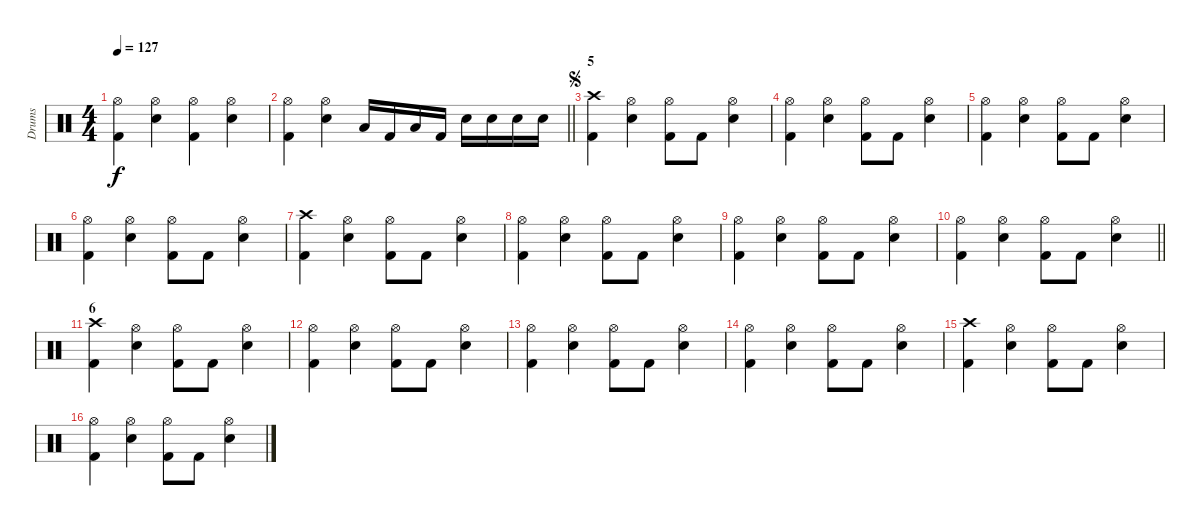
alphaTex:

\track ("Drums" "Drums") {instrument percussion}
\staff {score}
\articulation defaults
\ts (4 4)
\tempo 127
\clef neutral
\ks c
("Hi-Hat (open)" "Kick (hit) 2").4{dy f} ("Hi-Hat (open)" "Snare (hit) 2").4 ("Hi-Hat (open)" "Kick (hit) 2").4 ("Hi-Hat (open)" "Snare (hit) 2").4 |
\barLineRight lightlight
("Hi-Hat (open)" "Kick (hit) 2").4 ("Hi-Hat (open)" "Snare (hit) 2").4 "Low Tom (hit)".16 "Kick (hit) 2".16 "Low Tom (hit)".16 "Kick (hit) 2".16 "Snare (hit) 2".16 "Snare (hit) 2".16 "Snare (hit) 2".16 "Snare (hit) 2".16 |
\section ("" "5")
\jump segno
("Crash high (hit)" "Kick (hit) 2").4 ("Hi-Hat (open)" "Snare (hit) 2").4 ("Hi-Hat (open)" "Kick (hit) 2").8 "Kick (hit) 2".8 ("Hi-Hat (open)" "Snare (hit) 2").4 |
("Hi-Hat (open)" "Kick (hit) 2").4 ("Hi-Hat (open)" "Snare (hit) 2").4 ("Hi-Hat (open)" "Kick (hit) 2").8 "Kick (hit) 2".8 ("Hi-Hat (open)" "Snare (hit) 2").4 |
("Hi-Hat (open)" "Kick (hit) 2").4 ("Hi-Hat (open)" "Snare (hit) 2").4 ("Hi-Hat (open)" "Kick (hit) 2").8 "Kick (hit) 2".8 ("Hi-Hat (open)" "Snare (hit) 2").4 |
("Hi-Hat (open)" "Kick (hit) 2").4 ("Hi-Hat (open)" "Snare (hit) 2").4 ("Hi-Hat (open)" "Kick (hit) 2").8 "Kick (hit) 2".8 ("Hi-Hat (open)" "Snare (hit) 2").4 |
("Crash high (hit)" "Kick (hit) 2").4 ("Hi-Hat (open)" "Snare (hit) 2").4 ("Hi-Hat (open)" "Kick (hit) 2").8 "Kick (hit) 2".8 ("Hi-Hat (open)" "Snare (hit) 2").4 |
("Hi-Hat (open)" "Kick (hit) 2").4 ("Hi-Hat (open)" "Snare (hit) 2").4 ("Hi-Hat (open)" "Kick (hit) 2").8 "Kick (hit) 2".8 ("Hi-Hat (open)" "Snare (hit) 2").4 |
("Hi-Hat (open)" "Kick (hit) 2").4 ("Hi-Hat (open)" "Snare (hit) 2").4 ("Hi-Hat (open)" "Kick (hit) 2").8 "Kick (hit) 2".8 ("Hi-Hat (open)" "Snare (hit) 2").4 |
\barLineRight lightlight
("Hi-Hat (open)" "Kick (hit) 2").4 ("Hi-Hat (open)" "Snare (hit) 2").4 ("Hi-Hat (open)" "Kick (hit) 2").8 "Kick (hit) 2".8 ("Hi-Hat (open)" "Snare (hit) 2").4 |
\section ("" "6")
("Crash high (hit)" "Kick (hit) 2").4 ("Hi-Hat (open)" "Snare (hit) 2").4 ("Hi-Hat (open)" "Kick (hit) 2").8 "Kick (hit) 2".8 ("Hi-Hat (open)" "Snare (hit) 2").4 |
("Hi-Hat (open)" "Kick (hit) 2").4 ("Hi-Hat (open)" "Snare (hit) 2").4 ("Hi-Hat (open)" "Kick (hit) 2").8 "Kick (hit) 2".8 ("Hi-Hat (open)" "Snare (hit) 2").4 |
("Hi-Hat (open)" "Kick (hit) 2").4 ("Hi-Hat (open)" "Snare (hit) 2").4 ("Hi-Hat (open)" "Kick (hit) 2").8 "Kick (hit) 2".8 ("Hi-Hat (open)" "Snare (hit) 2").4 |
("Hi-Hat (open)" "Kick (hit) 2").4 ("Hi-Hat (open)" "Snare (hit) 2").4 ("Hi-Hat (open)" "Kick (hit) 2").8 "Kick (hit) 2".8 ("Hi-Hat (open)" "Snare (hit) 2").4 |
("Crash high (hit)" "Kick (hit) 2").4 ("Hi-Hat (open)" "Snare (hit) 2").4 ("Hi-Hat (open)" "Kick (hit) 2").8 "Kick (hit) 2".8 ("Hi-Hat (open)" "Snare (hit) 2").4 |
("Hi-Hat (open)" "Kick (hit) 2").4 ("Hi-Hat (open)" "Snare (hit) 2").4 ("Hi-Hat (open)" "Kick (hit) 2").8 "Kick (hit) 2".8 ("Hi-Hat (open)" "Snare (hit) 2").4
